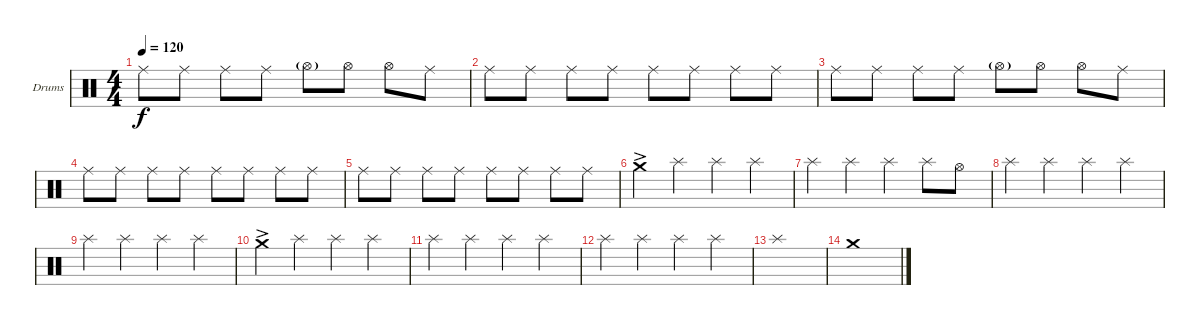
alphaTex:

\defaultSystemsLayout 4
\bracketExtendMode groupsimilarinstruments
\firstSystemTrackNameOrientation horizontal
\otherSystemsTrackNameOrientation horizontal
\track ("Drumkit" "Drums") {multiBarRest instrument percussion}
\staff {score}
\articulation defaults
\ts (4 4)
\tempo 120
\clef neutral
\ks c "Ride (middle)".8{dy f} "Ride (middle)".8 "Ride (middle)".8 "Ride (middle)".8 "Hi-Hat (open)"{g}.8 "Hi-Hat (open)".8 "Hi-Hat (open)".8 "Ride (middle)".8
|
"Ride (middle)".8 "Ride (middle)".8 "Ride (middle)".8 "Ride (middle)".8 "Ride (middle)".8 "Ride (middle)".8 "Ride (middle)".8 "Ride (middle)".8 |
"Ride (middle)".8 "Ride (middle)".8 "Ride (middle)".8 "Ride (middle)".8 "Hi-Hat (open)"{g}.8 "Hi-Hat (open)".8 "Hi-Hat (open)".8 "Ride (middle)".8 |
"Ride (middle)".8 "Ride (middle)".8 "Ride (middle)".8 "Ride (middle)".8 "Ride (middle)".8 "Ride (middle)".8 "Ride (middle)".8 "Ride (middle)".8 |
"Ride (middle)".8 "Ride (middle)".8 "Ride (middle)".8 "Ride (middle)".8 "Ride (middle)".8 "Ride (middle)".8 "Ride (middle)".8 "Ride (middle)".8 |
"Crash medium (hit)"{ac}.4 "Splash (hit)".4 "Splash (hit)".4 "Splash (hit)".4 |
"Splash (hit)".4 "Splash (hit)".4 "Splash (hit)".4 "Splash (hit)".8 "Hi-Hat (open)".8 |
"Splash (hit)".4 "Splash (hit)".4 "Splash (hit)".4 "Splash (hit)".4 |
"Splash (hit)".4 "Splash (hit)".4 "Splash (hit)".4 "Splash (hit)".4 |
"Crash medium (hit)"{ac}.4 "Splash (hit)".4 "Splash (hit)".4 "Splash (hit)".4 |
"Splash (hit)".4 "Splash (hit)".4 "Splash (hit)".4 "Splash (hit)".4 |
"Splash (hit)".4 "Splash (hit)".4 "Splash (hit)".4 "Splash (hit)".4 |
"Splash (hit)".1 |
"Crash medium (hit)".1
